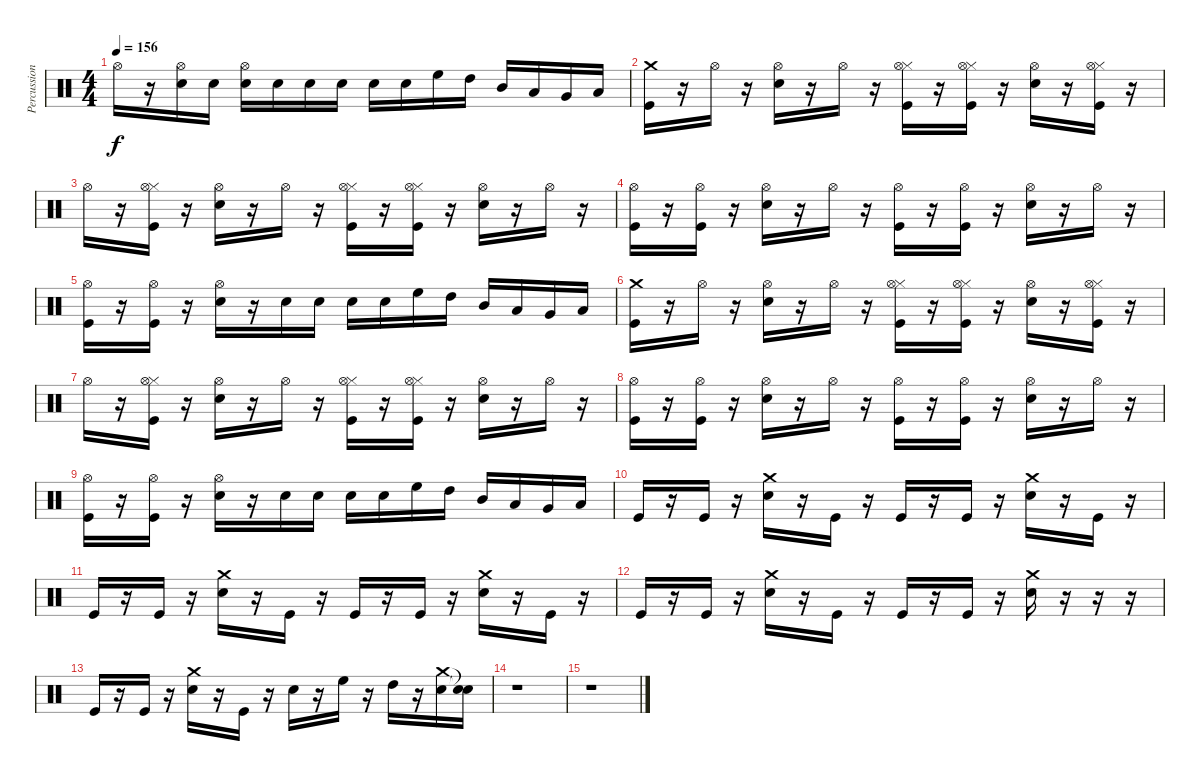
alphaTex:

\track ("Percussion" "Percussion") {instrument percussion}
\staff {score}
\articulation defaults
\ts (4 4)
\tempo 156
\clef neutral
\ks c "Hi-Hat (open)".16{dy f}
r.16 ("Snare (hit) 2" "Hi-Hat (open)").16 "Snare (hit) 2".16 ("Snare (hit) 2" "Hi-Hat (open)").16 "Snare (hit) 2".16 "Snare (hit) 2".16 "Snare (hit) 2".16 "Snare (hit) 2".16 "Snare (hit) 2".16 "High Floor Tom (hit)".16 "High Tom (hit)".16 "Mid Tom (hit)".16 "Low Tom (hit)".16 "Very Low Tom (hit)".16 "Low Floor Tom (hit)".16 |
("Kick (hit)" "Crash medium (hit)").16 r.16 "Hi-Hat (open)".16 r.16 ("Hi-Hat (open)" "Snare (hit) 2").16 r.16 "Hi-Hat (open)".16 r.16 ("Kick (hit)" "Hi-Hat (closed)" "Hi-Hat (open)").16 r.16 ("Kick (hit)" "Hi-Hat (closed)" "Hi-Hat (open)").16 r.16 ("Hi-Hat (open)" "Snare (hit) 2").16 r.16 ("Kick (hit)" "Hi-Hat (closed)" "Hi-Hat (open)").16 r.16 |
"Hi-Hat (open)".16 r.16 ("Kick (hit)" "Hi-Hat (closed)" "Hi-Hat (open)").16 r.16 ("Hi-Hat (open)" "Snare (hit) 2").16 r.16 "Hi-Hat (open)".16 r.16 ("Kick (hit)" "Hi-Hat (closed)" "Hi-Hat (open)").16 r.16 ("Kick (hit)" "Hi-Hat (closed)" "Hi-Hat (open)").16 r.16 ("Hi-Hat (open)" "Snare (hit) 2").16 r.16 "Hi-Hat (open)".16 r.16 |
("Kick (hit)" "Hi-Hat (open)").16 r.16 ("Kick (hit)" "Hi-Hat (open)").16 r.16 ("Snare (hit) 2" "Hi-Hat (open)").16 r.16 "Hi-Hat (open)".16 r.16 ("Kick (hit)" "Hi-Hat (open)").16 r.16 ("Kick (hit)" "Hi-Hat (open)").16 r.16 ("Snare (hit) 2" "Hi-Hat (open)").16 r.16 "Hi-Hat (open)".16 r.16 |
("Kick (hit)" "Hi-Hat (open)").16 r.16 ("Kick (hit)" "Hi-Hat (open)").16 r.16 ("Snare (hit) 2" "Hi-Hat (open)").16 r.16 "Snare (hit) 2".16 "Snare (hit) 2".16 "Snare (hit) 2".16 "Snare (hit) 2".16 "High Floor Tom (hit)".16 "High Tom (hit)".16 "Mid Tom (hit)".16 "Low Tom (hit)".16 "Very Low Tom (hit)".16 "Low Floor Tom (hit)".16 |
("Kick (hit)" "Crash medium (hit)").16 r.16 "Hi-Hat (open)".16 r.16 ("Hi-Hat (open)" "Snare (hit) 2").16 r.16 "Hi-Hat (open)".16 r.16 ("Kick (hit)" "Hi-Hat (closed)" "Hi-Hat (open)").16 r.16 ("Kick (hit)" "Hi-Hat (closed)" "Hi-Hat (open)").16 r.16 ("Hi-Hat (open)" "Snare (hit) 2").16 r.16 ("Kick (hit)" "Hi-Hat (closed)" "Hi-Hat (open)").16 r.16 |
"Hi-Hat (open)".16 r.16 ("Kick (hit)" "Hi-Hat (closed)" "Hi-Hat (open)").16 r.16 ("Hi-Hat (open)" "Snare (hit) 2").16 r.16 "Hi-Hat (open)".16 r.16 ("Kick (hit)" "Hi-Hat (closed)" "Hi-Hat (open)").16 r.16 ("Kick (hit)" "Hi-Hat (closed)" "Hi-Hat (open)").16 r.16 ("Hi-Hat (open)" "Snare (hit) 2").16 r.16 "Hi-Hat (open)".16 r.16 |
("Kick (hit)" "Hi-Hat (open)").16 r.16 ("Kick (hit)" "Hi-Hat (open)").16 r.16 ("Snare (hit) 2" "Hi-Hat (open)").16 r.16 "Hi-Hat (open)".16 r.16 ("Kick (hit)" "Hi-Hat (open)").16 r.16 ("Kick (hit)" "Hi-Hat (open)").16 r.16 ("Snare (hit) 2" "Hi-Hat (open)").16 r.16 "Hi-Hat (open)".16 r.16 |
("Kick (hit)" "Hi-Hat (open)").16 r.16 ("Kick (hit)" "Hi-Hat (open)").16 r.16 ("Snare (hit) 2" "Hi-Hat (open)").16 r.16 "Snare (hit) 2".16 "Snare (hit) 2".16 "Snare (hit) 2".16 "Snare (hit) 2".16 "High Floor Tom (hit)".16 "High Tom (hit)".16 "Mid Tom (hit)".16 "Low Tom (hit)".16 "Very Low Tom (hit)".16 "Low Floor Tom (hit)".16 |
"Kick (hit)".16 r.16 "Kick (hit)".16 r.16 ("Snare (hit) 2" "Crash medium (hit)").16 r.16 "Kick (hit)".16 r.16 "Kick (hit)".16 r.16 "Kick (hit)".16 r.16 ("Snare (hit) 2" "Crash medium (hit)").16 r.16 "Kick (hit)".16 r.16 |
"Kick (hit)".16 r.16 "Kick (hit)".16 r.16 ("Snare (hit) 2" "Crash medium (hit)").16 r.16 "Kick (hit)".16 r.16 "Kick (hit)".16 r.16 "Kick (hit)".16 r.16 ("Snare (hit) 2" "Crash medium (hit)").16 r.16 "Kick (hit)".16 r.16 |
"Kick (hit)".16 r.16 "Kick (hit)".16 r.16 ("Snare (hit) 2" "Crash medium (hit)").16 r.16 "Kick (hit)".16 r.16 "Kick (hit)".16 r.16 "Kick (hit)".16 r.16 ("Snare (hit) 2" "Crash medium (hit)").16 r.16 r.16 r.16 |
"Kick (hit)".16 r.16 "Kick (hit)".16 r.16 ("Snare (hit) 2" "Crash medium (hit)").16 r.16 "Kick (hit)".16 r.16 "Snare (hit) 2".16 r.16 "High Floor Tom (hit)".16 r.16 "High Tom (hit)".16 r.16 ("Snare (hit) 2" "Crash medium (hit)").16 ("Snare (hit)"{t} "Snare (hit)"{t}).16 |
r.1 |
r.1
